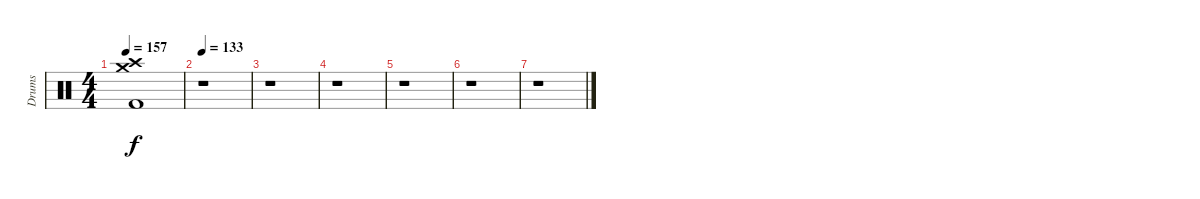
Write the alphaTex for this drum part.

\track ("Drums" "Drums") {instrument percussion}
\staff {score}
\articulation defaults
\ts (4 4)
\tempo 157
\clef neutral
\ks c
("Crash medium (hit)"{t} "Crash high (hit)"{t} "Kick (hit) 2"{t}).1{dy f} |
\tempo 133
r.1 |
r.1 |
r.1 |
r.1 |
r.1 |
r.1
